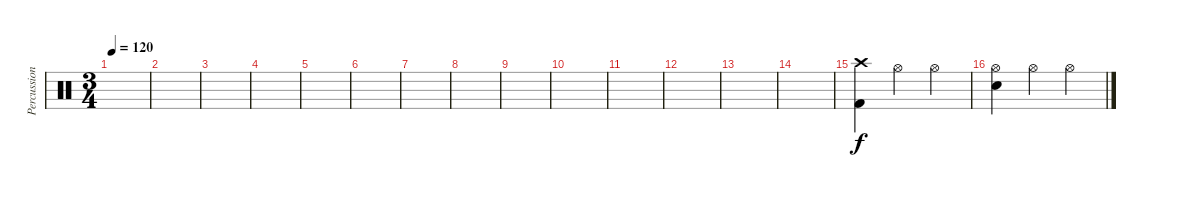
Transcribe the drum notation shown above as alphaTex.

\track ("Percussion" "Percussion") {instrument percussion}
\staff {score}
\articulation defaults
\ts (3 4)
\tempo 120
\clef neutral
\ks c
|
|
|
|
|
|
|
|
|
|
|
|
|
|
("Crash high (hit)" "Kick (hit) 2").4 "Hi-Hat (open)".4 "Hi-Hat (open)".4 |
("Hi-Hat (open)" "Electric Snare (hit)").4 "Hi-Hat (open)".4 "Hi-Hat (open)".4
